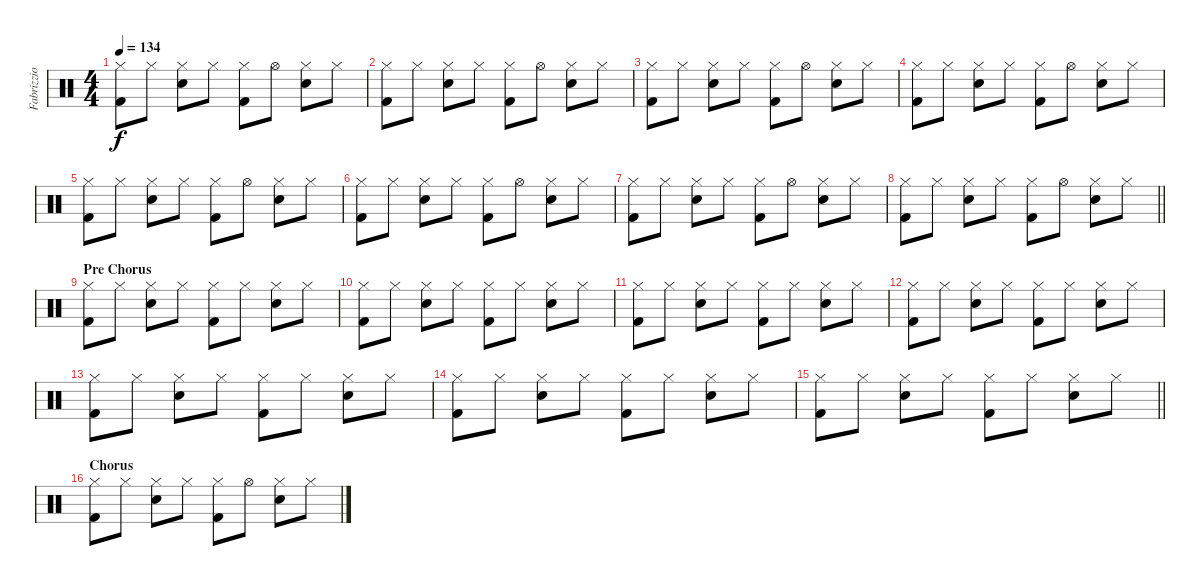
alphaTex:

\track ("Fabrizzio" "Fabrizzio") {instrument percussion}
\staff {score}
\articulation defaults
\ts (4 4)
\tempo 134
\clef neutral
\ks c
("Hi-Hat (closed)" "Kick (hit) 2").8{dy f} "Hi-Hat (closed)".8 ("Hi-Hat (closed)" "Snare (hit) 2").8 "Hi-Hat (closed)".8 ("Hi-Hat (closed)" "Kick (hit) 2").8 "Hi-Hat (open)".8 ("Hi-Hat (closed)" "Snare (hit) 2").8 "Hi-Hat (closed)".8 |
("Hi-Hat (closed)" "Kick (hit) 2").8 "Hi-Hat (closed)".8 ("Hi-Hat (closed)" "Snare (hit) 2").8 "Hi-Hat (closed)".8 ("Hi-Hat (closed)" "Kick (hit) 2").8 "Hi-Hat (open)".8 ("Hi-Hat (closed)" "Snare (hit) 2").8 "Hi-Hat (closed)".8 |
("Hi-Hat (closed)" "Kick (hit) 2").8 "Hi-Hat (closed)".8 ("Hi-Hat (closed)" "Snare (hit) 2").8 "Hi-Hat (closed)".8 ("Hi-Hat (closed)" "Kick (hit) 2").8 "Hi-Hat (open)".8 ("Hi-Hat (closed)" "Snare (hit) 2").8 "Hi-Hat (closed)".8 |
("Hi-Hat (closed)" "Kick (hit) 2").8 "Hi-Hat (closed)".8 ("Hi-Hat (closed)" "Snare (hit) 2").8 "Hi-Hat (closed)".8 ("Hi-Hat (closed)" "Kick (hit) 2").8 "Hi-Hat (open)".8 ("Hi-Hat (closed)" "Snare (hit) 2").8 "Hi-Hat (closed)".8 |
("Hi-Hat (closed)" "Kick (hit) 2").8 "Hi-Hat (closed)".8 ("Hi-Hat (closed)" "Snare (hit) 2").8 "Hi-Hat (closed)".8 ("Hi-Hat (closed)" "Kick (hit) 2").8 "Hi-Hat (open)".8 ("Hi-Hat (closed)" "Snare (hit) 2").8 "Hi-Hat (closed)".8 |
("Hi-Hat (closed)" "Kick (hit) 2").8 "Hi-Hat (closed)".8 ("Hi-Hat (closed)" "Snare (hit) 2").8 "Hi-Hat (closed)".8 ("Hi-Hat (closed)" "Kick (hit) 2").8 "Hi-Hat (open)".8 ("Hi-Hat (closed)" "Snare (hit) 2").8 "Hi-Hat (closed)".8 |
("Hi-Hat (closed)" "Kick (hit) 2").8 "Hi-Hat (closed)".8 ("Hi-Hat (closed)" "Snare (hit) 2").8 "Hi-Hat (closed)".8 ("Hi-Hat (closed)" "Kick (hit) 2").8 "Hi-Hat (open)".8 ("Hi-Hat (closed)" "Snare (hit) 2").8 "Hi-Hat (closed)".8 |
\barLineRight lightlight
("Hi-Hat (closed)" "Kick (hit) 2").8 "Hi-Hat (closed)".8 ("Hi-Hat (closed)" "Snare (hit) 2").8 "Hi-Hat (closed)".8 ("Hi-Hat (closed)" "Kick (hit) 2").8 "Hi-Hat (open)".8 ("Hi-Hat (closed)" "Snare (hit) 2").8 "Hi-Hat (closed)".8 |
\section ("" "Pre Chorus")
("Hi-Hat (closed)" "Kick (hit) 2").8 "Hi-Hat (closed)".8 ("Hi-Hat (closed)" "Snare (hit) 2").8 "Hi-Hat (closed)".8 ("Hi-Hat (closed)" "Kick (hit) 2").8 "Hi-Hat (closed)".8 ("Hi-Hat (closed)" "Snare (hit) 2").8 "Hi-Hat (closed)".8 |
("Hi-Hat (closed)" "Kick (hit) 2").8 "Hi-Hat (closed)".8 ("Hi-Hat (closed)" "Snare (hit) 2").8 "Hi-Hat (closed)".8 ("Hi-Hat (closed)" "Kick (hit) 2").8 "Hi-Hat (closed)".8 ("Hi-Hat (closed)" "Snare (hit) 2").8 "Hi-Hat (closed)".8 |
("Hi-Hat (closed)" "Kick (hit) 2").8 "Hi-Hat (closed)".8 ("Hi-Hat (closed)" "Snare (hit) 2").8 "Hi-Hat (closed)".8 ("Hi-Hat (closed)" "Kick (hit) 2").8 "Hi-Hat (closed)".8 ("Hi-Hat (closed)" "Snare (hit) 2").8 "Hi-Hat (closed)".8 |
("Hi-Hat (closed)" "Kick (hit) 2").8 "Hi-Hat (closed)".8 ("Hi-Hat (closed)" "Snare (hit) 2").8 "Hi-Hat (closed)".8 ("Hi-Hat (closed)" "Kick (hit) 2").8 "Hi-Hat (closed)".8 ("Hi-Hat (closed)" "Snare (hit) 2").8 "Hi-Hat (closed)".8 |
("Hi-Hat (closed)" "Kick (hit) 2").8 "Hi-Hat (closed)".8 ("Hi-Hat (closed)" "Snare (hit) 2").8 "Hi-Hat (closed)".8 ("Hi-Hat (closed)" "Kick (hit) 2").8 "Hi-Hat (closed)".8 ("Hi-Hat (closed)" "Snare (hit) 2").8 "Hi-Hat (closed)".8 |
("Hi-Hat (closed)" "Kick (hit) 2").8 "Hi-Hat (closed)".8 ("Hi-Hat (closed)" "Snare (hit) 2").8 "Hi-Hat (closed)".8 ("Hi-Hat (closed)" "Kick (hit) 2").8 "Hi-Hat (closed)".8 ("Hi-Hat (closed)" "Snare (hit) 2").8 "Hi-Hat (closed)".8 |
\barLineRight lightlight
("Hi-Hat (closed)" "Kick (hit) 2").8 "Hi-Hat (closed)".8 ("Hi-Hat (closed)" "Snare (hit) 2").8 "Hi-Hat (closed)".8 ("Hi-Hat (closed)" "Kick (hit) 2").8 "Hi-Hat (closed)".8 ("Hi-Hat (closed)" "Snare (hit) 2").8 "Hi-Hat (closed)".8 |
\section ("" "Chorus")
("Hi-Hat (closed)" "Kick (hit) 2").8 "Hi-Hat (closed)".8 ("Hi-Hat (closed)" "Snare (hit) 2").8 "Hi-Hat (closed)".8 ("Hi-Hat (closed)" "Kick (hit) 2").8 "Hi-Hat (open)".8 ("Hi-Hat (closed)" "Snare (hit) 2").8 "Hi-Hat (closed)".8
